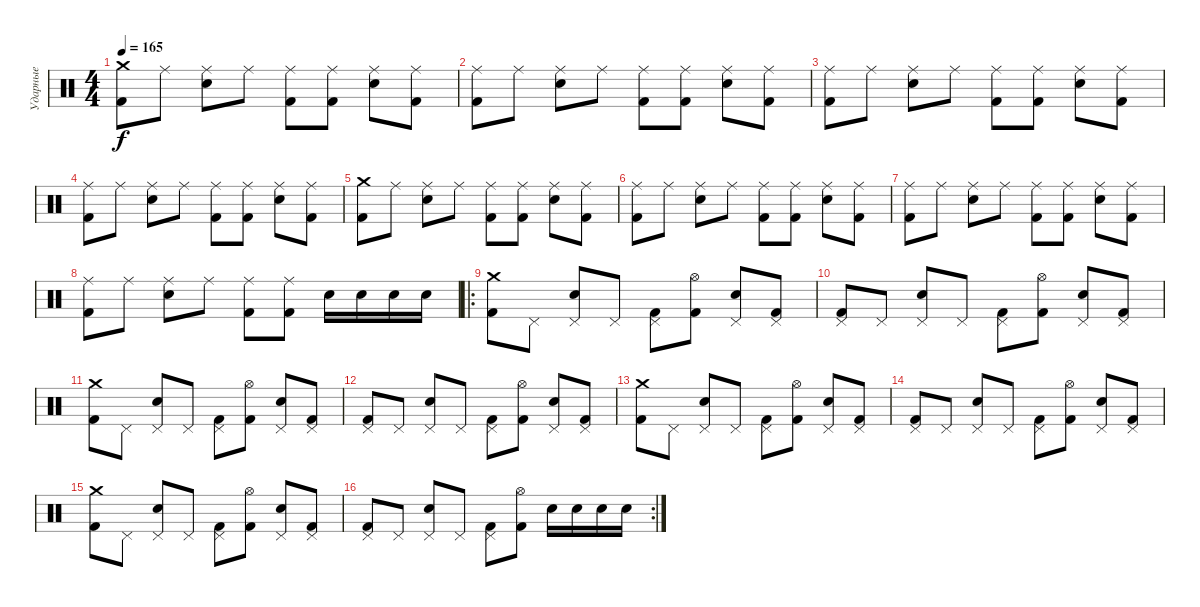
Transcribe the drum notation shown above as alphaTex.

\track ("Ударные" "Ударные") {instrument percussion}
\staff {score}
\articulation defaults
\ts (4 4)
\tempo 165
\clef neutral
\ks c
("Crash medium (hit)" "Kick (hit) 2").8{dy f} "Ride (middle)".8 ("Ride (middle)" "Electric Snare (hit)").8 "Ride (middle)".8 ("Ride (middle)" "Kick (hit) 2").8 ("Ride (middle)" "Kick (hit) 2").8 ("Ride (middle)" "Electric Snare (hit)").8 ("Ride (middle)" "Kick (hit) 2").8 |
("Ride (middle)" "Kick (hit) 2").8 "Ride (middle)".8 ("Ride (middle)" "Electric Snare (hit)").8 "Ride (middle)".8 ("Ride (middle)" "Kick (hit) 2").8 ("Ride (middle)" "Kick (hit) 2").8 ("Ride (middle)" "Electric Snare (hit)").8 ("Ride (middle)" "Kick (hit) 2").8 |
("Ride (middle)" "Kick (hit) 2").8 "Ride (middle)".8 ("Ride (middle)" "Electric Snare (hit)").8 "Ride (middle)".8 ("Ride (middle)" "Kick (hit) 2").8 ("Ride (middle)" "Kick (hit) 2").8 ("Ride (middle)" "Electric Snare (hit)").8 ("Ride (middle)" "Kick (hit) 2").8 |
("Ride (middle)" "Kick (hit) 2").8 "Ride (middle)".8 ("Ride (middle)" "Electric Snare (hit)").8 "Ride (middle)".8 ("Ride (middle)" "Kick (hit) 2").8 ("Ride (middle)" "Kick (hit) 2").8 ("Ride (middle)" "Electric Snare (hit)").8 ("Ride (middle)" "Kick (hit) 2").8 |
("Crash medium (hit)" "Kick (hit) 2").8 "Ride (middle)".8 ("Ride (middle)" "Electric Snare (hit)").8 "Ride (middle)".8 ("Ride (middle)" "Kick (hit) 2").8 ("Ride (middle)" "Kick (hit) 2").8 ("Ride (middle)" "Electric Snare (hit)").8 ("Ride (middle)" "Kick (hit) 2").8 |
("Ride (middle)" "Kick (hit) 2").8 "Ride (middle)".8 ("Ride (middle)" "Electric Snare (hit)").8 "Ride (middle)".8 ("Ride (middle)" "Kick (hit) 2").8 ("Ride (middle)" "Kick (hit) 2").8 ("Ride (middle)" "Electric Snare (hit)").8 ("Ride (middle)" "Kick (hit) 2").8 |
("Ride (middle)" "Kick (hit) 2").8 "Ride (middle)".8 ("Ride (middle)" "Electric Snare (hit)").8 "Ride (middle)".8 ("Ride (middle)" "Kick (hit) 2").8 ("Ride (middle)" "Kick (hit) 2").8 ("Ride (middle)" "Electric Snare (hit)").8 ("Ride (middle)" "Kick (hit) 2").8 |
("Ride (middle)" "Kick (hit) 2").8 "Ride (middle)".8 ("Ride (middle)" "Electric Snare (hit)").8 "Ride (middle)".8 ("Ride (middle)" "Kick (hit) 2").8 ("Ride (middle)" "Kick (hit) 2").8 "Electric Snare (hit)".16 "Electric Snare (hit)".16 "Electric Snare (hit)".16 "Electric Snare (hit)".16 |
\ro
("Crash medium (hit)" "Kick (hit) 2").8 "Pedal Hi-Hat (hit)".8 ("Pedal Hi-Hat (hit)" "Electric Snare (hit)").8 "Pedal Hi-Hat (hit)".8 ("Pedal Hi-Hat (hit)" "Kick (hit) 2").8 ("Hi-Hat (open)" "Kick (hit) 2").8 ("Pedal Hi-Hat (hit)" "Electric Snare (hit)").8 ("Pedal Hi-Hat (hit)" "Kick (hit) 2").8 |
("Pedal Hi-Hat (hit)" "Kick (hit) 2").8 "Pedal Hi-Hat (hit)".8 ("Pedal Hi-Hat (hit)" "Electric Snare (hit)").8 "Pedal Hi-Hat (hit)".8 ("Pedal Hi-Hat (hit)" "Kick (hit) 2").8 ("Hi-Hat (open)" "Kick (hit) 2").8 ("Pedal Hi-Hat (hit)" "Electric Snare (hit)").8 ("Pedal Hi-Hat (hit)" "Kick (hit) 2").8 |
("Crash medium (hit)" "Kick (hit) 2").8 "Pedal Hi-Hat (hit)".8 ("Pedal Hi-Hat (hit)" "Electric Snare (hit)").8 "Pedal Hi-Hat (hit)".8 ("Pedal Hi-Hat (hit)" "Kick (hit) 2").8 ("Hi-Hat (open)" "Kick (hit) 2").8 ("Pedal Hi-Hat (hit)" "Electric Snare (hit)").8 ("Pedal Hi-Hat (hit)" "Kick (hit) 2").8 |
("Pedal Hi-Hat (hit)" "Kick (hit) 2").8 "Pedal Hi-Hat (hit)".8 ("Pedal Hi-Hat (hit)" "Electric Snare (hit)").8 "Pedal Hi-Hat (hit)".8 ("Pedal Hi-Hat (hit)" "Kick (hit) 2").8 ("Hi-Hat (open)" "Kick (hit) 2").8 ("Pedal Hi-Hat (hit)" "Electric Snare (hit)").8 ("Pedal Hi-Hat (hit)" "Kick (hit) 2").8 |
("Crash medium (hit)" "Kick (hit) 2").8 "Pedal Hi-Hat (hit)".8 ("Pedal Hi-Hat (hit)" "Electric Snare (hit)").8 "Pedal Hi-Hat (hit)".8 ("Pedal Hi-Hat (hit)" "Kick (hit) 2").8 ("Hi-Hat (open)" "Kick (hit) 2").8 ("Pedal Hi-Hat (hit)" "Electric Snare (hit)").8 ("Pedal Hi-Hat (hit)" "Kick (hit) 2").8 |
("Pedal Hi-Hat (hit)" "Kick (hit) 2").8 "Pedal Hi-Hat (hit)".8 ("Pedal Hi-Hat (hit)" "Electric Snare (hit)").8 "Pedal Hi-Hat (hit)".8 ("Pedal Hi-Hat (hit)" "Kick (hit) 2").8 ("Hi-Hat (open)" "Kick (hit) 2").8 ("Pedal Hi-Hat (hit)" "Electric Snare (hit)").8 ("Pedal Hi-Hat (hit)" "Kick (hit) 2").8 |
("Crash medium (hit)" "Kick (hit) 2").8 "Pedal Hi-Hat (hit)".8 ("Pedal Hi-Hat (hit)" "Electric Snare (hit)").8 "Pedal Hi-Hat (hit)".8 ("Pedal Hi-Hat (hit)" "Kick (hit) 2").8 ("Hi-Hat (open)" "Kick (hit) 2").8 ("Pedal Hi-Hat (hit)" "Electric Snare (hit)").8 ("Pedal Hi-Hat (hit)" "Kick (hit) 2").8 |
\rc 2
("Pedal Hi-Hat (hit)" "Kick (hit) 2").8 "Pedal Hi-Hat (hit)".8 ("Pedal Hi-Hat (hit)" "Electric Snare (hit)").8 "Pedal Hi-Hat (hit)".8 ("Pedal Hi-Hat (hit)" "Kick (hit) 2").8 ("Hi-Hat (open)" "Kick (hit) 2").8 "Electric Snare (hit)".16 "Electric Snare (hit)".16 "Electric Snare (hit)".16 "Electric Snare (hit)".16
